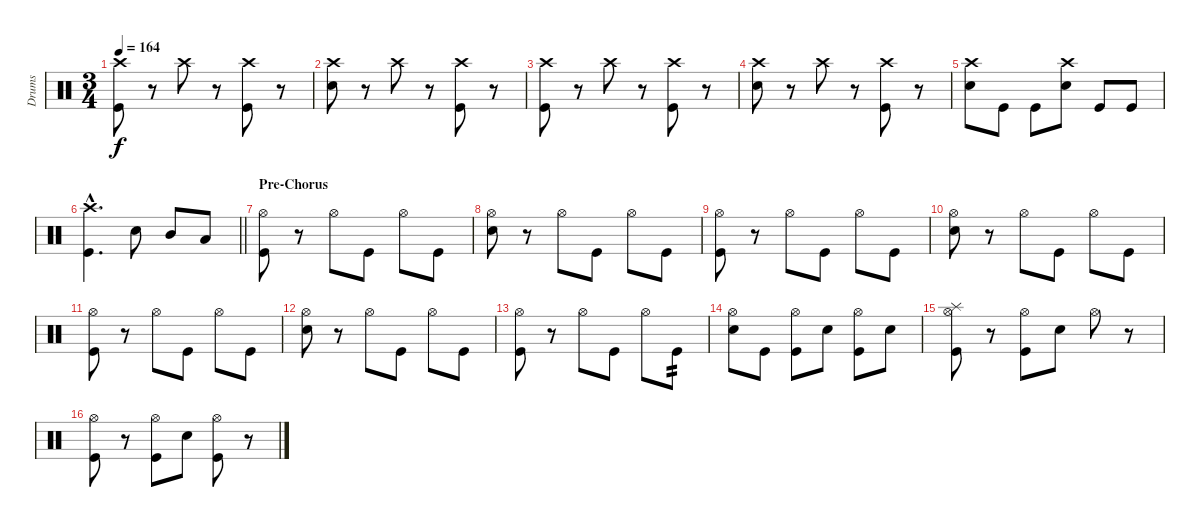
\track ("Drums" "Drums") {instrument percussion}
\staff {score}
\articulation defaults
\ts (3 4)
\tempo 164
\clef neutral
\ks c
("Crash high (hit)" "Kick (hit)").8{dy f} r.8 "Crash high (hit)".8 r.8 ("Crash high (hit)" "Kick (hit)").8 r.8 |
("Crash high (hit)" "Snare (hit) 2").8 r.8 "Crash high (hit)".8 r.8 ("Crash high (hit)" "Kick (hit)").8 r.8 |
("Crash high (hit)" "Kick (hit)").8 r.8 "Crash high (hit)".8 r.8 ("Crash high (hit)" "Kick (hit)").8 r.8 |
("Crash high (hit)" "Snare (hit) 2").8 r.8 "Crash high (hit)".8 r.8 ("Crash high (hit)" "Kick (hit)").8 r.8 |
("Crash high (hit)" "Snare (hit) 2").8 "Kick (hit)".8 "Kick (hit)".8 ("Crash high (hit)" "Snare (hit) 2").8 "Kick (hit)".8 "Kick (hit)".8 |
\barLineRight lightlight
("Crash high (hit)"{hac} "Kick (hit)"{hac}).4{d} "Snare (hit) 2".8 "Mid Tom (hit)".8 "Low Tom (hit)".8 |
\section ("" "Pre-Chorus")
("Hi-Hat (open)" "Kick (hit)").8 r.8 "Hi-Hat (open)".8 "Kick (hit)".8 "Hi-Hat (open)".8 "Kick (hit)".8 |
("Hi-Hat (open)" "Snare (hit) 2").8 r.8 "Hi-Hat (open)".8 "Kick (hit)".8 "Hi-Hat (open)".8 "Kick (hit)".8 |
("Hi-Hat (open)" "Kick (hit)").8 r.8 "Hi-Hat (open)".8 "Kick (hit)".8 "Hi-Hat (open)".8 "Kick (hit)".8 |
("Hi-Hat (open)" "Snare (hit) 2").8 r.8 "Hi-Hat (open)".8 "Kick (hit)".8 "Hi-Hat (open)".8 "Kick (hit)".8 |
("Hi-Hat (open)" "Kick (hit)").8 r.8 "Hi-Hat (open)".8 "Kick (hit)".8 "Hi-Hat (open)".8 "Kick (hit)".8 |
("Hi-Hat (open)" "Snare (hit) 2").8 r.8 "Hi-Hat (open)".8 "Kick (hit)".8 "Hi-Hat (open)".8 "Kick (hit)".8 |
("Hi-Hat (open)" "Kick (hit)").8 r.8 "Hi-Hat (open)".8 "Kick (hit)".8 "Hi-Hat (open)".8 "Kick (hit)".8{tp 2} |
("Hi-Hat (open)" "Snare (hit) 2").8 "Kick (hit)".8 ("Hi-Hat (open)" "Kick (hit)").8 "Snare (hit) 2".8 ("Hi-Hat (open)" "Kick (hit)").8 "Snare (hit) 2".8 |
("Hi-Hat (open)" "Splash (hit)" "Kick (hit)").8 r.8 ("Hi-Hat (open)" "Kick (hit)").8 "Snare (hit) 2".8 "Hi-Hat (open)".8 r.8 |
("Hi-Hat (open)" "Kick (hit)").8 r.8 ("Hi-Hat (open)" "Kick (hit)").8 "Snare (hit) 2".8 ("Hi-Hat (open)" "Kick (hit)").8 r.8
